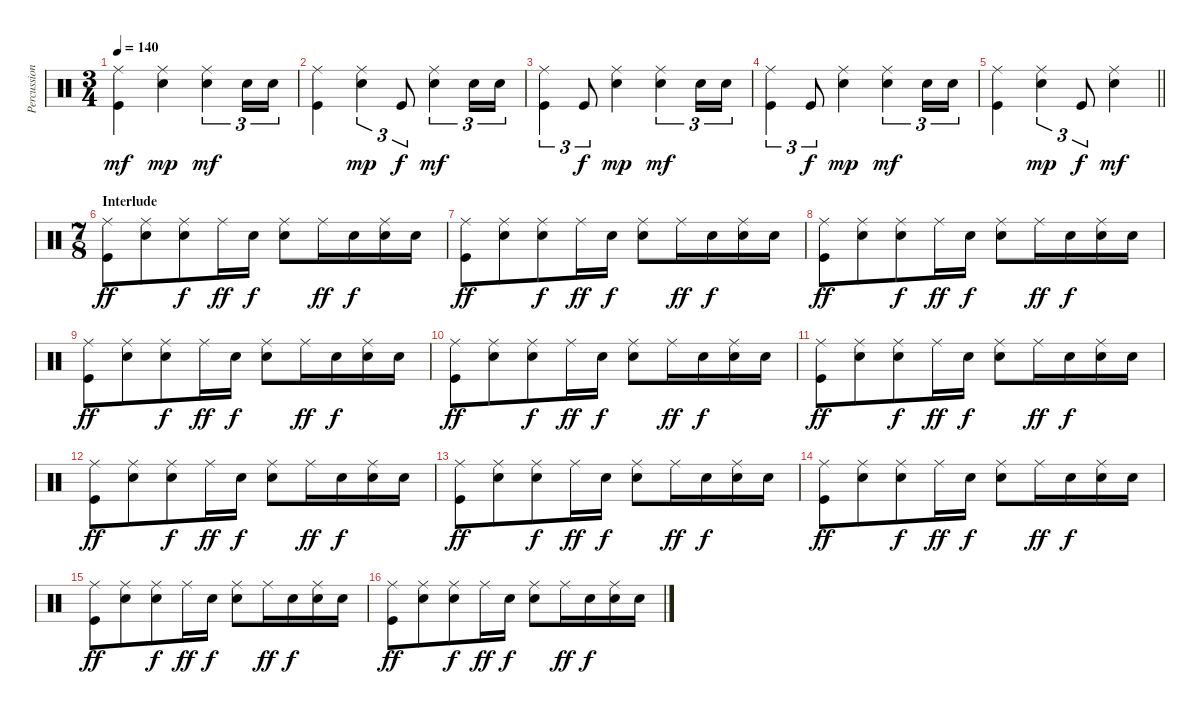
\track ("Percussion" "Percussion") {instrument percussion}
\staff {score}
\articulation defaults
\ts (3 4)
\tempo 140
\clef neutral
\ks c
("Ride (middle)" "Kick (hit)").4{dy mf} ("Ride (middle)" "Electric Snare (hit)").4{dy mp} ("Electric Snare (hit)" "Ride (middle)").4{tu (3 2) dy mf} "Electric Snare (hit)".16{tu (3 2)} "Electric Snare (hit)".16{tu (3 2)} |
("Ride (middle)" "Kick (hit)").4 ("Ride (middle)" "Electric Snare (hit)").4{tu (3 2) dy mp} "Kick (hit)".8{tu (3 2) dy f} ("Ride (middle)" "Electric Snare (hit)").4{tu (3 2) dy mf} "Electric Snare (hit)".16{tu (3 2)} "Electric Snare (hit)".16{tu (3 2)} |
("Kick (hit)" "Ride (middle)").4{tu (3 2)} "Kick (hit)".8{tu (3 2) dy f} ("Ride (middle)" "Electric Snare (hit)").4{dy mp} ("Ride (middle)" "Electric Snare (hit)").4{tu (3 2) dy mf} "Electric Snare (hit)".16{tu (3 2)} "Electric Snare (hit)".16{tu (3 2)} |
("Ride (middle)" "Kick (hit)").4{tu (3 2)} "Kick (hit)".8{tu (3 2) dy f} ("Electric Snare (hit)" "Ride (middle)").4{dy mp} ("Ride (middle)" "Electric Snare (hit)").4{tu (3 2) dy mf} "Electric Snare (hit)".16{tu (3 2)} "Electric Snare (hit)".16{tu (3 2)} |
\barLineRight lightlight
("Ride (middle)" "Kick (hit)").4 ("Ride (middle)" "Electric Snare (hit)").4{tu (3 2) dy mp} "Kick (hit)".8{tu (3 2) dy f} ("Electric Snare (hit)" "Ride (middle)").4{dy mf} |
\ts (7 8)
\section ("" "Interlude")
("Ride (middle)" "Kick (hit)").8{dy ff} ("Ride (middle)" "Electric Snare (hit)").8 ("Ride (middle)" "Electric Snare (hit)").8{dy f} "Ride (middle)".16{dy ff} "Electric Snare (hit)".16{dy f} ("Ride (middle)" "Electric Snare (hit)").8 "Ride (middle)".16{dy ff} "Electric Snare (hit)".16{dy f} ("Ride (middle)" "Electric Snare (hit)").16 "Electric Snare (hit)".16 |
("Ride (middle)" "Kick (hit)").8{dy ff} ("Ride (middle)" "Electric Snare (hit)").8 ("Ride (middle)" "Electric Snare (hit)").8{dy f} "Ride (middle)".16{dy ff} "Electric Snare (hit)".16{dy f} ("Ride (middle)" "Electric Snare (hit)").8 "Ride (middle)".16{dy ff} "Electric Snare (hit)".16{dy f} ("Ride (middle)" "Electric Snare (hit)").16 "Electric Snare (hit)".16 |
("Ride (middle)" "Kick (hit)").8{dy ff} ("Ride (middle)" "Electric Snare (hit)").8 ("Ride (middle)" "Electric Snare (hit)").8{dy f} "Ride (middle)".16{dy ff} "Electric Snare (hit)".16{dy f} ("Ride (middle)" "Electric Snare (hit)").8 "Ride (middle)".16{dy ff} "Electric Snare (hit)".16{dy f} ("Ride (middle)" "Electric Snare (hit)").16 "Electric Snare (hit)".16 |
("Ride (middle)" "Kick (hit)").8{dy ff} ("Ride (middle)" "Electric Snare (hit)").8 ("Ride (middle)" "Electric Snare (hit)").8{dy f} "Ride (middle)".16{dy ff} "Electric Snare (hit)".16{dy f} ("Ride (middle)" "Electric Snare (hit)").8 "Ride (middle)".16{dy ff} "Electric Snare (hit)".16{dy f} ("Ride (middle)" "Electric Snare (hit)").16 "Electric Snare (hit)".16 |
("Ride (middle)" "Kick (hit)").8{dy ff} ("Ride (middle)" "Electric Snare (hit)").8 ("Ride (middle)" "Electric Snare (hit)").8{dy f} "Ride (middle)".16{dy ff} "Electric Snare (hit)".16{dy f} ("Ride (middle)" "Electric Snare (hit)").8 "Ride (middle)".16{dy ff} "Electric Snare (hit)".16{dy f} ("Ride (middle)" "Electric Snare (hit)").16 "Electric Snare (hit)".16 |
("Ride (middle)" "Kick (hit)").8{dy ff} ("Ride (middle)" "Electric Snare (hit)").8 ("Ride (middle)" "Electric Snare (hit)").8{dy f} "Ride (middle)".16{dy ff} "Electric Snare (hit)".16{dy f} ("Ride (middle)" "Electric Snare (hit)").8 "Ride (middle)".16{dy ff} "Electric Snare (hit)".16{dy f} ("Ride (middle)" "Electric Snare (hit)").16 "Electric Snare (hit)".16 |
("Ride (middle)" "Kick (hit)").8{dy ff} ("Ride (middle)" "Electric Snare (hit)").8 ("Ride (middle)" "Electric Snare (hit)").8{dy f} "Ride (middle)".16{dy ff} "Electric Snare (hit)".16{dy f} ("Ride (middle)" "Electric Snare (hit)").8 "Ride (middle)".16{dy ff} "Electric Snare (hit)".16{dy f} ("Ride (middle)" "Electric Snare (hit)").16 "Electric Snare (hit)".16 |
("Ride (middle)" "Kick (hit)").8{dy ff} ("Ride (middle)" "Electric Snare (hit)").8 ("Ride (middle)" "Electric Snare (hit)").8{dy f} "Ride (middle)".16{dy ff} "Electric Snare (hit)".16{dy f} ("Ride (middle)" "Electric Snare (hit)").8 "Ride (middle)".16{dy ff} "Electric Snare (hit)".16{dy f} ("Ride (middle)" "Electric Snare (hit)").16 "Electric Snare (hit)".16 |
("Ride (middle)" "Kick (hit)").8{dy ff} ("Ride (middle)" "Electric Snare (hit)").8 ("Ride (middle)" "Electric Snare (hit)").8{dy f} "Ride (middle)".16{dy ff} "Electric Snare (hit)".16{dy f} ("Ride (middle)" "Electric Snare (hit)").8 "Ride (middle)".16{dy ff} "Electric Snare (hit)".16{dy f} ("Ride (middle)" "Electric Snare (hit)").16 "Electric Snare (hit)".16 |
("Ride (middle)" "Kick (hit)").8{dy ff} ("Ride (middle)" "Electric Snare (hit)").8 ("Ride (middle)" "Electric Snare (hit)").8{dy f} "Ride (middle)".16{dy ff} "Electric Snare (hit)".16{dy f} ("Ride (middle)" "Electric Snare (hit)").8 "Ride (middle)".16{dy ff} "Electric Snare (hit)".16{dy f} ("Ride (middle)" "Electric Snare (hit)").16 "Electric Snare (hit)".16 |
("Ride (middle)" "Kick (hit)").8{dy ff} ("Ride (middle)" "Electric Snare (hit)").8 ("Ride (middle)" "Electric Snare (hit)").8{dy f} "Ride (middle)".16{dy ff} "Electric Snare (hit)".16{dy f} ("Ride (middle)" "Electric Snare (hit)").8 "Ride (middle)".16{dy ff} "Electric Snare (hit)".16{dy f} ("Ride (middle)" "Electric Snare (hit)").16 "Electric Snare (hit)".16
